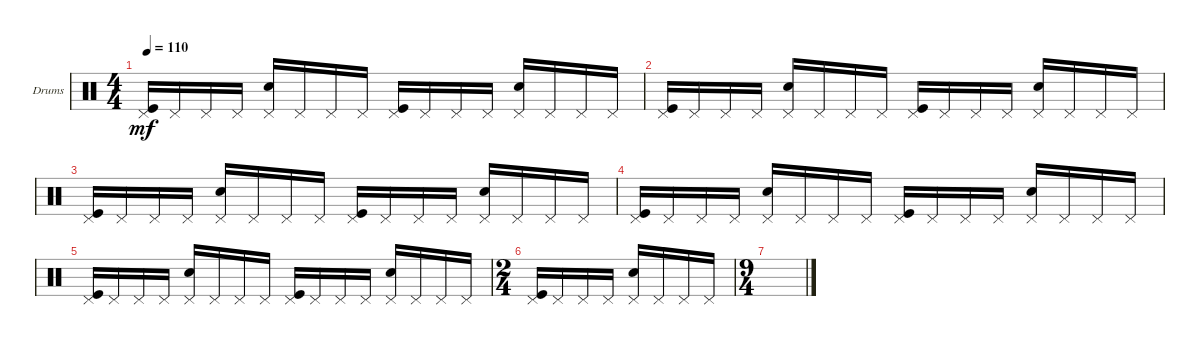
\defaultSystemsLayout 4
\bracketExtendMode groupsimilarinstruments
\firstSystemTrackNameOrientation horizontal
\otherSystemsTrackNameOrientation horizontal
\track ("Drumkit" "Drums") {instrument percussion}
\staff {score}
\articulation defaults
\ts (4 4)
\tempo 110
\clef neutral
\ks c
("Pedal Hi-Hat (hit)" "Kick (hit)").16{dy mf} "Pedal Hi-Hat (hit)".16 "Pedal Hi-Hat (hit)".16 "Pedal Hi-Hat (hit)".16 ("Pedal Hi-Hat (hit)" "Snare (hit) 2").16 "Pedal Hi-Hat (hit)".16 "Pedal Hi-Hat (hit)".16 "Pedal Hi-Hat (hit)".16 ("Pedal Hi-Hat (hit)" "Kick (hit)").16 "Pedal Hi-Hat (hit)".16 "Pedal Hi-Hat (hit)".16 "Pedal Hi-Hat (hit)".16 ("Pedal Hi-Hat (hit)" "Snare (hit) 2").16 "Pedal Hi-Hat (hit)".16 "Pedal Hi-Hat (hit)".16 "Pedal Hi-Hat (hit)".16 |
("Pedal Hi-Hat (hit)" "Kick (hit)").16 "Pedal Hi-Hat (hit)".16 "Pedal Hi-Hat (hit)".16 "Pedal Hi-Hat (hit)".16 ("Pedal Hi-Hat (hit)" "Snare (hit) 2").16 "Pedal Hi-Hat (hit)".16 "Pedal Hi-Hat (hit)".16 "Pedal Hi-Hat (hit)".16 ("Pedal Hi-Hat (hit)" "Kick (hit)").16 "Pedal Hi-Hat (hit)".16 "Pedal Hi-Hat (hit)".16 "Pedal Hi-Hat (hit)".16 ("Pedal Hi-Hat (hit)" "Snare (hit) 2").16 "Pedal Hi-Hat (hit)".16 "Pedal Hi-Hat (hit)".16 "Pedal Hi-Hat (hit)".16 |
("Pedal Hi-Hat (hit)" "Kick (hit)").16 "Pedal Hi-Hat (hit)".16 "Pedal Hi-Hat (hit)".16 "Pedal Hi-Hat (hit)".16 ("Pedal Hi-Hat (hit)" "Snare (hit) 2").16 "Pedal Hi-Hat (hit)".16 "Pedal Hi-Hat (hit)".16 "Pedal Hi-Hat (hit)".16 ("Pedal Hi-Hat (hit)" "Kick (hit)").16 "Pedal Hi-Hat (hit)".16 "Pedal Hi-Hat (hit)".16 "Pedal Hi-Hat (hit)".16 ("Pedal Hi-Hat (hit)" "Snare (hit) 2").16 "Pedal Hi-Hat (hit)".16 "Pedal Hi-Hat (hit)".16 "Pedal Hi-Hat (hit)".16 |
("Pedal Hi-Hat (hit)" "Kick (hit)").16 "Pedal Hi-Hat (hit)".16 "Pedal Hi-Hat (hit)".16 "Pedal Hi-Hat (hit)".16 ("Pedal Hi-Hat (hit)" "Snare (hit) 2").16 "Pedal Hi-Hat (hit)".16 "Pedal Hi-Hat (hit)".16 "Pedal Hi-Hat (hit)".16 ("Pedal Hi-Hat (hit)" "Kick (hit)").16 "Pedal Hi-Hat (hit)".16 "Pedal Hi-Hat (hit)".16 "Pedal Hi-Hat (hit)".16 ("Pedal Hi-Hat (hit)" "Snare (hit) 2").16 "Pedal Hi-Hat (hit)".16 "Pedal Hi-Hat (hit)".16 "Pedal Hi-Hat (hit)".16 |
("Pedal Hi-Hat (hit)" "Kick (hit)").16 "Pedal Hi-Hat (hit)".16 "Pedal Hi-Hat (hit)".16 "Pedal Hi-Hat (hit)".16 ("Pedal Hi-Hat (hit)" "Snare (hit) 2").16 "Pedal Hi-Hat (hit)".16 "Pedal Hi-Hat (hit)".16 "Pedal Hi-Hat (hit)".16 ("Pedal Hi-Hat (hit)" "Kick (hit)").16 "Pedal Hi-Hat (hit)".16 "Pedal Hi-Hat (hit)".16 "Pedal Hi-Hat (hit)".16 ("Pedal Hi-Hat (hit)" "Snare (hit) 2").16 "Pedal Hi-Hat (hit)".16 "Pedal Hi-Hat (hit)".16 "Pedal Hi-Hat (hit)".16 |
\ts (2 4)
("Pedal Hi-Hat (hit)" "Kick (hit)").16 "Pedal Hi-Hat (hit)".16 "Pedal Hi-Hat (hit)".16 "Pedal Hi-Hat (hit)".16 ("Pedal Hi-Hat (hit)" "Snare (hit) 2").16 "Pedal Hi-Hat (hit)".16 "Pedal Hi-Hat (hit)".16 "Pedal Hi-Hat (hit)".16 |
\ts (9 4)
